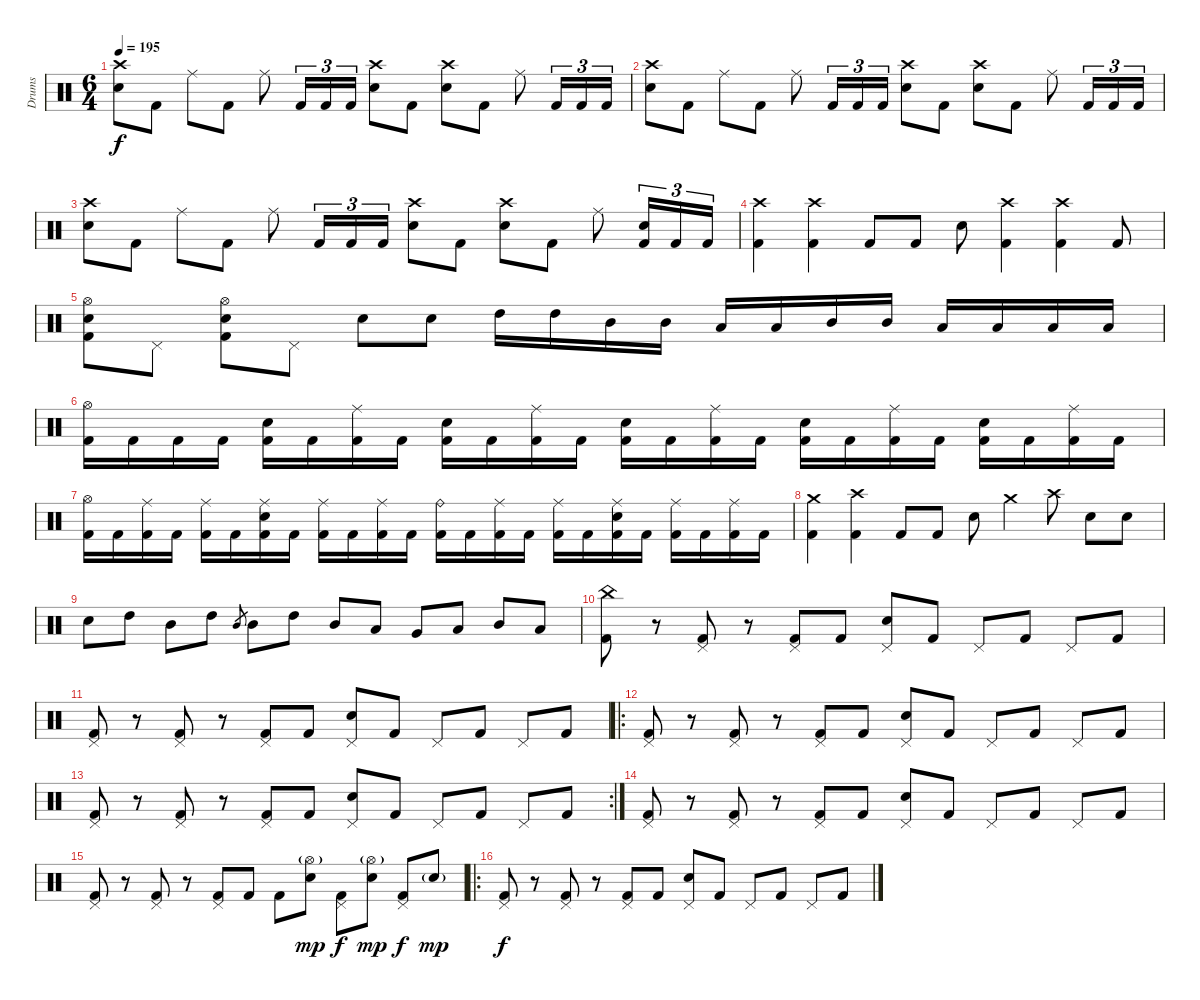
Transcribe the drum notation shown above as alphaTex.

\track ("Drums" "Drums") {instrument percussion}
\staff {score}
\articulation defaults
\ts (6 4)
\tempo 195
\clef neutral
\ks c
("Crash high (hit)" "Electric Snare (hit)").8{dy f} "Kick (hit) 2".8 "Ride (middle)".8 "Kick (hit) 2".8 "Ride (middle)".8 "Kick (hit) 2".16{tu (3 2)} "Kick (hit) 2".16{tu (3 2)} "Kick (hit) 2".16{tu (3 2)} ("Crash high (hit)" "Electric Snare (hit)").8 "Kick (hit) 2".8 ("Crash high (hit)" "Electric Snare (hit)").8 "Kick (hit) 2".8 "Ride (middle)".8 "Kick (hit) 2".16{tu (3 2)} "Kick (hit) 2".16{tu (3 2)} "Kick (hit) 2".16{tu (3 2)} |
("Crash high (hit)" "Electric Snare (hit)").8 "Kick (hit) 2".8 "Ride (middle)".8 "Kick (hit) 2".8 "Ride (middle)".8 "Kick (hit) 2".16{tu (3 2)} "Kick (hit) 2".16{tu (3 2)} "Kick (hit) 2".16{tu (3 2)} ("Crash high (hit)" "Electric Snare (hit)").8 "Kick (hit) 2".8 ("Crash high (hit)" "Electric Snare (hit)").8 "Kick (hit) 2".8 "Ride (middle)".8 "Kick (hit) 2".16{tu (3 2)} "Kick (hit) 2".16{tu (3 2)} "Kick (hit) 2".16{tu (3 2)} |
("Crash high (hit)" "Electric Snare (hit)").8 "Kick (hit) 2".8 "Ride (middle)".8 "Kick (hit) 2".8 "Ride (middle)".8 "Kick (hit) 2".16{tu (3 2)} "Kick (hit) 2".16{tu (3 2)} "Kick (hit) 2".16{tu (3 2)} ("Crash high (hit)" "Electric Snare (hit)").8 "Kick (hit) 2".8 ("Crash high (hit)" "Electric Snare (hit)").8 "Kick (hit) 2".8 "Ride (middle)".8 ("Electric Snare (hit)" "Kick (hit) 2").16{tu (3 2)} "Kick (hit) 2".16{tu (3 2)} "Kick (hit) 2".16{tu (3 2)} |
("Crash high (hit)" "Kick (hit) 2").4 ("Crash high (hit)" "Kick (hit) 2").4 "Kick (hit) 2".8 "Kick (hit) 2".8 "Electric Snare (hit)".8 ("Crash high (hit)" "Kick (hit) 2").4 ("Crash high (hit)" "Kick (hit) 2").4 "Kick (hit) 2".8 |
("Hi-Hat (open)" "Electric Snare (hit)" "Kick (hit) 2").8 "Pedal Hi-Hat (hit)".8 ("Hi-Hat (open)" "Electric Snare (hit)" "Kick (hit) 2").8 "Pedal Hi-Hat (hit)".8 "Electric Snare (hit)".8 "Electric Snare (hit)".8 "High Tom (hit)".16 "High Tom (hit)".16 "Mid Tom (hit)".16 "Mid Tom (hit)".16 "Low Tom (hit)".16 "Low Tom (hit)".16 "Mid Tom (hit)".16 "Mid Tom (hit)".16 "Low Tom (hit)".16 "Low Tom (hit)".16 "Low Tom (hit)".16 "Low Tom (hit)".16 |
("Hi-Hat (open)" "Kick (hit) 2").16 "Kick (hit) 2".16 "Kick (hit) 2".16 "Kick (hit) 2".16 ("Electric Snare (hit)" "Kick (hit) 2").16 "Kick (hit) 2".16 ("Ride (middle)" "Kick (hit) 2").16 "Kick (hit) 2".16 ("Electric Snare (hit)" "Kick (hit) 2").16 "Kick (hit) 2".16 ("Ride (middle)" "Kick (hit) 2").16 "Kick (hit) 2".16 ("Electric Snare (hit)" "Kick (hit) 2").16 "Kick (hit) 2".16 ("Ride (middle)" "Kick (hit) 2").16 "Kick (hit) 2".16 ("Electric Snare (hit)" "Kick (hit) 2").16 "Kick (hit) 2".16 ("Ride (middle)" "Kick (hit) 2").16 "Kick (hit) 2".16 ("Electric Snare (hit)" "Kick (hit) 2").16 "Kick (hit) 2".16 ("Ride (middle)" "Kick (hit) 2").16 "Kick (hit) 2".16 |
("Hi-Hat (open)" "Kick (hit) 2").16 "Kick (hit) 2".16 ("Ride (middle)" "Kick (hit) 2").16 "Kick (hit) 2".16 ("Ride (middle)" "Kick (hit) 2").16 "Kick (hit) 2".16 ("Ride (middle)" "Electric Snare (hit)" "Kick (hit) 2").16 "Kick (hit) 2".16 ("Ride (middle)" "Kick (hit) 2").16 "Kick (hit) 2".16 ("Ride (middle)" "Kick (hit) 2").16 "Kick (hit) 2".16 ("Ride (bell)" "Kick (hit) 2").16 "Kick (hit) 2".16 ("Ride (middle)" "Kick (hit) 2").16 "Kick (hit) 2".16 ("Ride (middle)" "Kick (hit) 2").16 "Kick (hit) 2".16 ("Ride (middle)" "Electric Snare (hit)" "Kick (hit) 2").16 "Kick (hit) 2".16 ("Ride (middle)" "Kick (hit) 2").16 "Kick (hit) 2".16 ("Ride (middle)" "Kick (hit) 2").16 "Kick (hit) 2".16 |
("Crash medium (hit)" "Kick (hit) 2").4 ("Crash high (hit)" "Kick (hit) 2").4 "Kick (hit) 2".8 "Kick (hit) 2".8 "Electric Snare (hit)".8 "Crash medium (hit)".4 "Crash high (hit)".8 "Electric Snare (hit)".8 "Electric Snare (hit)".8 |
"Electric Snare (hit)".8 "High Tom (hit)".8 "Mid Tom (hit)".8 "High Tom (hit)".8 "Mid Tom (hit)".8{gr} "Mid Tom (hit)".8 "High Tom (hit)".8 "Mid Tom (hit)".8 "Low Tom (hit)".8 "Very Low Tom (hit)".8 "Low Tom (hit)".8 "Mid Tom (hit)".8 "Low Tom (hit)".8 |
("China (hit)" "Kick (hit) 2").8 r.8 ("Pedal Hi-Hat (hit)" "Kick (hit) 2").8 r.8 ("Pedal Hi-Hat (hit)" "Kick (hit) 2").8 "Kick (hit) 2".8 ("Pedal Hi-Hat (hit)" "Electric Snare (hit)").8 "Kick (hit) 2".8 "Pedal Hi-Hat (hit)".8 "Kick (hit) 2".8 "Pedal Hi-Hat (hit)".8 "Kick (hit) 2".8 |
("Pedal Hi-Hat (hit)" "Kick (hit) 2").8 r.8 ("Pedal Hi-Hat (hit)" "Kick (hit) 2").8 r.8 ("Pedal Hi-Hat (hit)" "Kick (hit) 2").8 "Kick (hit) 2".8 ("Pedal Hi-Hat (hit)" "Electric Snare (hit)").8 "Kick (hit) 2".8 "Pedal Hi-Hat (hit)".8 "Kick (hit) 2".8 "Pedal Hi-Hat (hit)".8 "Kick (hit) 2".8 |
\ro
("Pedal Hi-Hat (hit)" "Kick (hit) 2").8 r.8 ("Pedal Hi-Hat (hit)" "Kick (hit) 2").8 r.8 ("Pedal Hi-Hat (hit)" "Kick (hit) 2").8 "Kick (hit) 2".8 ("Pedal Hi-Hat (hit)" "Electric Snare (hit)").8 "Kick (hit) 2".8 "Pedal Hi-Hat (hit)".8 "Kick (hit) 2".8 "Pedal Hi-Hat (hit)".8 "Kick (hit) 2".8 |
\rc 2
("Pedal Hi-Hat (hit)" "Kick (hit) 2").8 r.8 ("Pedal Hi-Hat (hit)" "Kick (hit) 2").8 r.8 ("Pedal Hi-Hat (hit)" "Kick (hit) 2").8 "Kick (hit) 2".8 ("Pedal Hi-Hat (hit)" "Electric Snare (hit)").8 "Kick (hit) 2".8 "Pedal Hi-Hat (hit)".8 "Kick (hit) 2".8 "Pedal Hi-Hat (hit)".8 "Kick (hit) 2".8 |
("Pedal Hi-Hat (hit)" "Kick (hit) 2").8 r.8 ("Pedal Hi-Hat (hit)" "Kick (hit) 2").8 r.8 ("Pedal Hi-Hat (hit)" "Kick (hit) 2").8 "Kick (hit) 2".8 ("Pedal Hi-Hat (hit)" "Electric Snare (hit)").8 "Kick (hit) 2".8 "Pedal Hi-Hat (hit)".8 "Kick (hit) 2".8 "Pedal Hi-Hat (hit)".8 "Kick (hit) 2".8 |
("Pedal Hi-Hat (hit)" "Kick (hit) 2").8 r.8 ("Pedal Hi-Hat (hit)" "Kick (hit) 2").8 r.8 ("Pedal Hi-Hat (hit)" "Kick (hit) 2").8 "Kick (hit) 2".8 "Kick (hit) 2".8 ("Hi-Hat (open)"{g} "Electric Snare (hit)").8{dy mp} ("Pedal Hi-Hat (hit)" "Kick (hit) 2").8{dy f} ("Hi-Hat (open)"{g} "Electric Snare (hit)").8{dy mp} ("Pedal Hi-Hat (hit)" "Kick (hit) 2").8{dy f} "Electric Snare (hit)"{g}.8{dy mp} |
\ro
("Pedal Hi-Hat (hit)" "Kick (hit) 2").8{dy f} r.8 ("Pedal Hi-Hat (hit)" "Kick (hit) 2").8 r.8 ("Pedal Hi-Hat (hit)" "Kick (hit) 2").8 "Kick (hit) 2".8 ("Pedal Hi-Hat (hit)" "Electric Snare (hit)").8 "Kick (hit) 2".8 "Pedal Hi-Hat (hit)".8 "Kick (hit) 2".8 "Pedal Hi-Hat (hit)".8 "Kick (hit) 2".8
